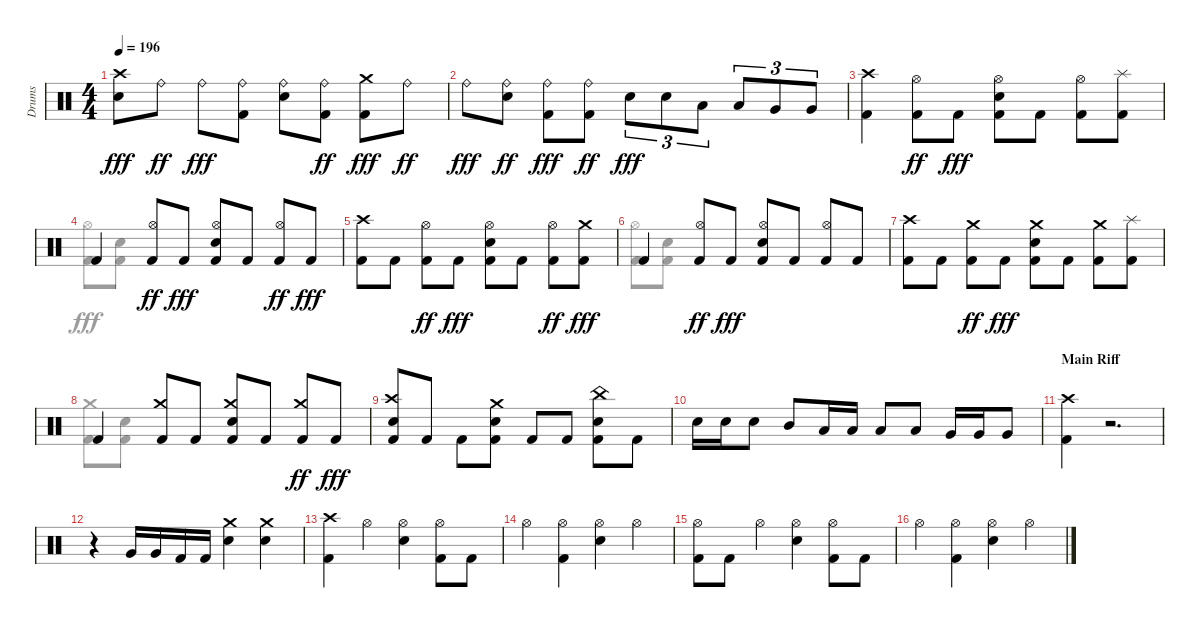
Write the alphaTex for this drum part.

\track ("Drums" "Drums") {instrument percussion}
\staff {score}
\articulation defaults
\voice
\ts (4 4)
\tempo 196
\clef neutral
\ks aminor
("Snare (hit) 2" "Crash high (hit)").8{dy fff} "Ride (bell)".8{dy ff} "Ride (bell)".8{dy fff} ("Ride (bell)" "Kick (hit) 2").8 ("Snare (hit) 2" "Ride (bell)").8 ("Ride (bell)" "Kick (hit) 2").8{dy ff} ("Kick (hit) 2" "Crash medium (hit)").8{dy fff} "Ride (bell)".8{dy ff} |
"Ride (bell)".8{dy fff} ("Ride (bell)" "Snare (hit) 2").8{dy ff} ("Kick (hit) 2" "Ride (bell)").8{dy fff} ("Ride (bell)" "Kick (hit) 2").8{dy ff} "Snare (hit) 2".8{tu (3 2) dy fff} "Snare (hit) 2".8{tu (3 2)} "Low Tom (hit)".8{tu (3 2)} "Low Tom (hit)".8{tu (3 2)} "Very Low Tom (hit)".8{tu (3 2)} "Very Low Tom (hit)".8{tu (3 2)} |
("Crash high (hit)" "Kick (hit) 2").4 ("Hi-Hat (open)" "Kick (hit) 2").8{dy ff} "Kick (hit) 2".8{dy fff} ("Snare (hit) 2" "Hi-Hat (open)" "Kick (hit) 2").8 "Kick (hit) 2".8 ("Hi-Hat (open)" "Kick (hit) 2").8 ("Kick (hit) 2" "Splash (hit)").8 |
"Kick (hit) 2".4 ("Kick (hit) 2" "Hi-Hat (open)").8{dy ff} "Kick (hit) 2".8{dy fff} ("Hi-Hat (open)" "Snare (hit) 2" "Kick (hit) 2").8 "Kick (hit) 2".8 ("Kick (hit) 2" "Hi-Hat (open)").8{dy ff} "Kick (hit) 2".8{dy fff} |
("Kick (hit) 2" "Crash high (hit)").8 "Kick (hit) 2".8 ("Kick (hit) 2" "Hi-Hat (open)").8{dy ff} "Kick (hit) 2".8{dy fff} ("Hi-Hat (open)" "Snare (hit) 2" "Kick (hit) 2").8 "Kick (hit) 2".8 ("Hi-Hat (open)" "Kick (hit) 2").8{dy ff} ("Crash medium (hit)" "Kick (hit) 2").8{dy fff} |
"Kick (hit) 2".4 ("Hi-Hat (open)" "Kick (hit) 2").8{dy ff} "Kick (hit) 2".8{dy fff} ("Snare (hit) 2" "Hi-Hat (open)" "Kick (hit) 2").8 "Kick (hit) 2".8 ("Hi-Hat (open)" "Kick (hit) 2").8 "Kick (hit) 2".8 |
("Kick (hit) 2" "Crash high (hit)").8 "Kick (hit) 2".8 ("Crash medium (hit)" "Kick (hit) 2").8{dy ff} "Kick (hit) 2".8{dy fff} ("Kick (hit) 2" "Snare (hit) 2" "Crash medium (hit)").8 "Kick (hit) 2".8 ("Crash medium (hit)" "Kick (hit) 2").8 ("Kick (hit) 2" "Splash (hit)").8 |
"Kick (hit) 2".4 ("Kick (hit) 2" "Crash medium (hit)").8 "Kick (hit) 2".8 ("Crash medium (hit)" "Snare (hit) 2" "Kick (hit) 2").8 "Kick (hit) 2".8 ("Kick (hit) 2" "Crash medium (hit)").8{dy ff} "Kick (hit) 2".8{dy fff} |
("Snare (hit) 2" "Crash high (hit)" "Kick (hit) 2").8 "Kick (hit) 2".8 "Kick (hit) 2".8 ("Kick (hit) 2" "Crash medium (hit)" "Snare (hit) 2").8 "Kick (hit) 2".8 "Kick (hit) 2".8 ("Snare (hit) 2" "China (hit)" "Kick (hit) 2").8 "Kick (hit) 2".8 |
"Snare (hit) 2".16 "Snare (hit) 2".16 "Snare (hit) 2".8 "Mid Tom (hit)".8 "Low Tom (hit)".16 "Low Tom (hit)".16 "Low Tom (hit)".8 "Low Tom (hit)".8 "Very Low Tom (hit)".16 "Very Low Tom (hit)".16 "Very Low Tom (hit)".8 |
\section ("" "Main Riff")
("Kick (hit) 2" "Crash high (hit)").4 r.2{d} |
r.4 "Very Low Tom (hit)".16 "Very Low Tom (hit)".16 "Kick (hit) 2".16 "Kick (hit) 2".16 ("Snare (hit) 2" "Crash medium (hit)").4 ("Snare (hit) 2" "Crash medium (hit)").4 |
("Kick (hit) 2" "Crash high (hit)").4 "Hi-Hat (open)".4 ("Snare (hit) 2" "Hi-Hat (open)").4 ("Kick (hit) 2" "Hi-Hat (open)").8 "Kick (hit) 2".8 |
"Hi-Hat (open)".4 ("Kick (hit) 2" "Hi-Hat (open)").4 ("Hi-Hat (open)" "Snare (hit) 2").4 "Hi-Hat (open)".4 |
("Hi-Hat (open)" "Kick (hit) 2").8 "Kick (hit) 2".8 "Hi-Hat (open)".4 ("Snare (hit) 2" "Hi-Hat (open)").4 ("Kick (hit) 2" "Hi-Hat (open)").8 "Kick (hit) 2".8 |
"Hi-Hat (open)".4 ("Kick (hit) 2" "Hi-Hat (open)").4 ("Snare (hit) 2" "Hi-Hat (open)").4 "Hi-Hat (open)".4
\voice
\clef neutral
\ottava regular
\simile none
\ks aminor
|
|
|
("Hi-Hat (open)" "Kick (hit) 2").8 ("Snare (hit) 2" "Kick (hit) 2").8 |
|
("Hi-Hat (open)" "Kick (hit) 2").8 ("Snare (hit) 2" "Kick (hit) 2").8 |
|
("Kick (hit) 2" "Crash medium (hit)").8 ("Kick (hit) 2" "Snare (hit) 2").8 |
|
|
|
|
|
|
|
